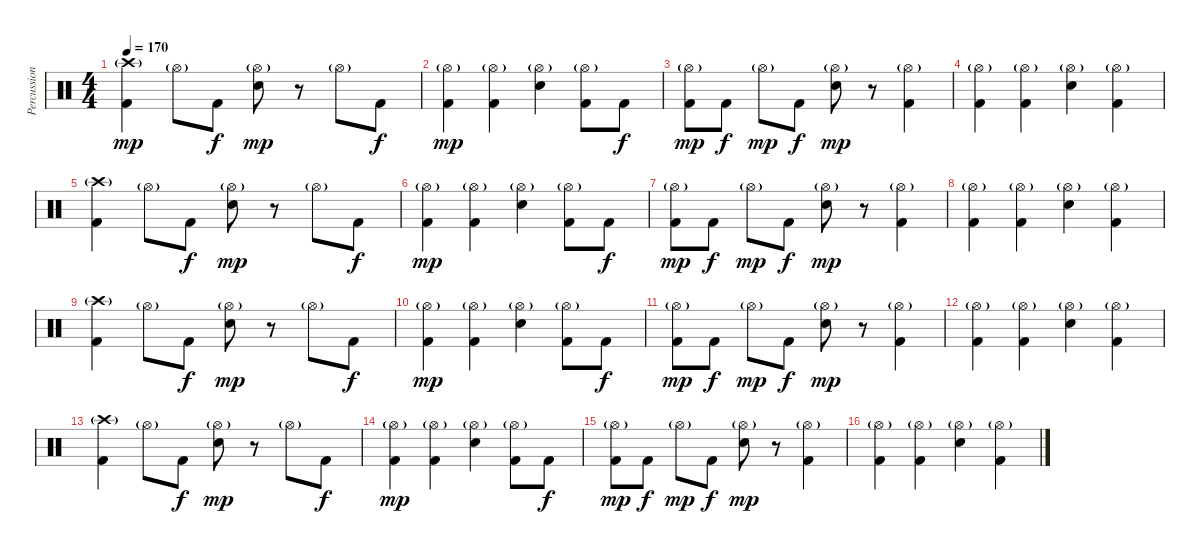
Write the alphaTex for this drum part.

\track ("Percussion" "Percussion") {instrument percussion}
\staff {score}
\articulation defaults
\ts (4 4)
\tempo 170
\clef neutral
\ks c
("Crash high (hit)"{g} "Kick (hit) 2").4{dy mp} "Hi-Hat (open)"{g}.8 "Kick (hit) 2".8{dy f} ("Hi-Hat (open)"{g} "Electric Snare (hit)").8{dy mp} r.8 "Hi-Hat (open)"{g}.8 "Kick (hit) 2".8{dy f} |
("Hi-Hat (open)"{g} "Kick (hit) 2").4{dy mp} ("Hi-Hat (open)"{g} "Kick (hit) 2").4 ("Hi-Hat (open)"{g} "Electric Snare (hit)").4 ("Hi-Hat (open)"{g} "Kick (hit) 2").8 "Kick (hit) 2".8{dy f} |
("Hi-Hat (open)"{g} "Kick (hit) 2").8{dy mp} "Kick (hit) 2".8{dy f} "Hi-Hat (open)"{g}.8{dy mp} "Kick (hit) 2".8{dy f} ("Hi-Hat (open)"{g} "Electric Snare (hit)").8{dy mp} r.8 ("Hi-Hat (open)"{g} "Kick (hit) 2").4 |
("Hi-Hat (open)"{g} "Kick (hit) 2").4 ("Hi-Hat (open)"{g} "Kick (hit) 2").4 ("Hi-Hat (open)"{g} "Electric Snare (hit)").4 ("Hi-Hat (open)"{g} "Kick (hit) 2").4 |
("Crash high (hit)"{g} "Kick (hit) 2").4 "Hi-Hat (open)"{g}.8 "Kick (hit) 2".8{dy f} ("Hi-Hat (open)"{g} "Electric Snare (hit)").8{dy mp} r.8 "Hi-Hat (open)"{g}.8 "Kick (hit) 2".8{dy f} |
("Hi-Hat (open)"{g} "Kick (hit) 2").4{dy mp} ("Hi-Hat (open)"{g} "Kick (hit) 2").4 ("Hi-Hat (open)"{g} "Electric Snare (hit)").4 ("Hi-Hat (open)"{g} "Kick (hit) 2").8 "Kick (hit) 2".8{dy f} |
("Hi-Hat (open)"{g} "Kick (hit) 2").8{dy mp} "Kick (hit) 2".8{dy f} "Hi-Hat (open)"{g}.8{dy mp} "Kick (hit) 2".8{dy f} ("Hi-Hat (open)"{g} "Electric Snare (hit)").8{dy mp} r.8 ("Hi-Hat (open)"{g} "Kick (hit) 2").4 |
("Hi-Hat (open)"{g} "Kick (hit) 2").4 ("Hi-Hat (open)"{g} "Kick (hit) 2").4 ("Hi-Hat (open)"{g} "Electric Snare (hit)").4 ("Hi-Hat (open)"{g} "Kick (hit) 2").4 |
("Crash high (hit)"{g} "Kick (hit) 2").4 "Hi-Hat (open)"{g}.8 "Kick (hit) 2".8{dy f} ("Hi-Hat (open)"{g} "Electric Snare (hit)").8{dy mp} r.8 "Hi-Hat (open)"{g}.8 "Kick (hit) 2".8{dy f} |
("Hi-Hat (open)"{g} "Kick (hit) 2").4{dy mp} ("Hi-Hat (open)"{g} "Kick (hit) 2").4 ("Hi-Hat (open)"{g} "Electric Snare (hit)").4 ("Hi-Hat (open)"{g} "Kick (hit) 2").8 "Kick (hit) 2".8{dy f} |
("Hi-Hat (open)"{g} "Kick (hit) 2").8{dy mp} "Kick (hit) 2".8{dy f} "Hi-Hat (open)"{g}.8{dy mp} "Kick (hit) 2".8{dy f} ("Hi-Hat (open)"{g} "Electric Snare (hit)").8{dy mp} r.8 ("Hi-Hat (open)"{g} "Kick (hit) 2").4 |
("Hi-Hat (open)"{g} "Kick (hit) 2").4 ("Hi-Hat (open)"{g} "Kick (hit) 2").4 ("Hi-Hat (open)"{g} "Electric Snare (hit)").4 ("Hi-Hat (open)"{g} "Kick (hit) 2").4 |
("Crash high (hit)"{g} "Kick (hit) 2").4 "Hi-Hat (open)"{g}.8 "Kick (hit) 2".8{dy f} ("Hi-Hat (open)"{g} "Electric Snare (hit)").8{dy mp} r.8 "Hi-Hat (open)"{g}.8 "Kick (hit) 2".8{dy f} |
("Hi-Hat (open)"{g} "Kick (hit) 2").4{dy mp} ("Hi-Hat (open)"{g} "Kick (hit) 2").4 ("Hi-Hat (open)"{g} "Electric Snare (hit)").4 ("Hi-Hat (open)"{g} "Kick (hit) 2").8 "Kick (hit) 2".8{dy f} |
("Hi-Hat (open)"{g} "Kick (hit) 2").8{dy mp} "Kick (hit) 2".8{dy f} "Hi-Hat (open)"{g}.8{dy mp} "Kick (hit) 2".8{dy f} ("Hi-Hat (open)"{g} "Electric Snare (hit)").8{dy mp} r.8 ("Hi-Hat (open)"{g} "Kick (hit) 2").4 |
("Hi-Hat (open)"{g} "Kick (hit) 2").4 ("Hi-Hat (open)"{g} "Kick (hit) 2").4 ("Hi-Hat (open)"{g} "Electric Snare (hit)").4 ("Hi-Hat (open)"{g} "Kick (hit) 2").4
